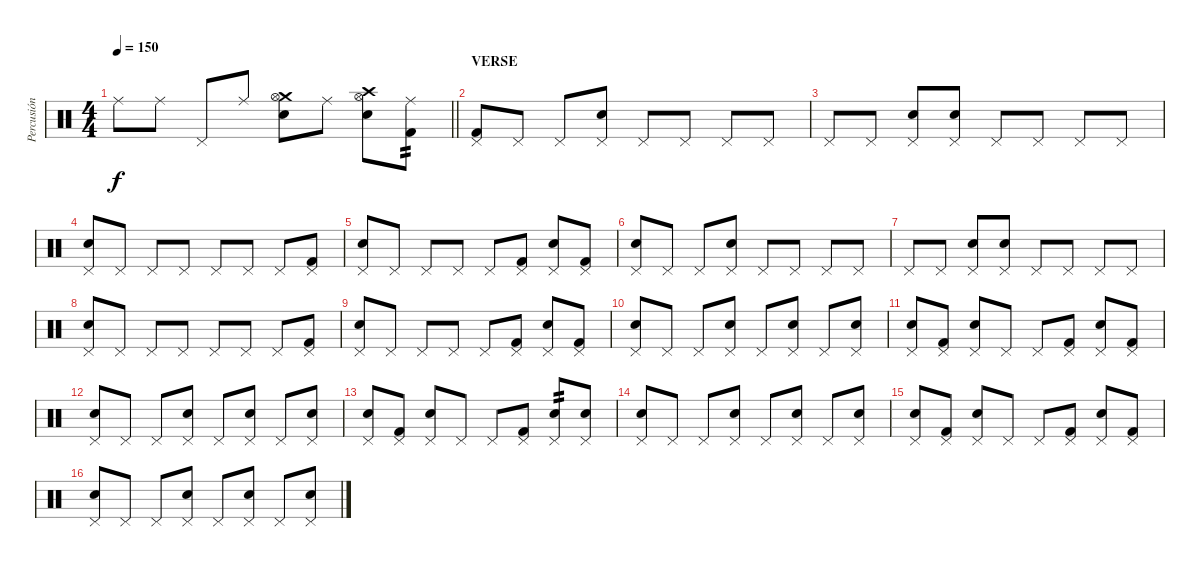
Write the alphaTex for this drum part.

\track ("Percusión" "Percusión") {instrument percussion}
\staff {score}
\articulation defaults
\ts (4 4)
\tempo 150
\clef neutral
\barLineRight lightlight
\ks c "Ride (middle)".8{dy f} "Ride (middle)".8 "Pedal Hi-Hat (hit)".8 "Ride (middle)".8
("Snare (hit) 2" "Crash medium (hit)" "Hi-Hat (open)").8 "Ride (middle)".8 ("Snare (hit) 2" "Crash high (hit)" "Hi-Hat (open)").8 ("Kick (hit) 2" "Ride (middle)").8{tp 2} |
\section ("" "VERSE")
("Kick (hit) 2" "Pedal Hi-Hat (hit)").8 "Pedal Hi-Hat (hit)".8 "Pedal Hi-Hat (hit)".8 ("Electric Snare (hit)" "Pedal Hi-Hat (hit)").8 "Pedal Hi-Hat (hit)".8 "Pedal Hi-Hat (hit)".8 "Pedal Hi-Hat (hit)".8 "Pedal Hi-Hat (hit)".8 |
"Pedal Hi-Hat (hit)".8 "Pedal Hi-Hat (hit)".8 ("Electric Snare (hit)" "Pedal Hi-Hat (hit)").8 ("Electric Snare (hit)" "Pedal Hi-Hat (hit)").8 "Pedal Hi-Hat (hit)".8 "Pedal Hi-Hat (hit)".8 "Pedal Hi-Hat (hit)".8 "Pedal Hi-Hat (hit)".8 |
("Electric Snare (hit)" "Pedal Hi-Hat (hit)").8 "Pedal Hi-Hat (hit)".8 "Pedal Hi-Hat (hit)".8 "Pedal Hi-Hat (hit)".8 "Pedal Hi-Hat (hit)".8 "Pedal Hi-Hat (hit)".8 "Pedal Hi-Hat (hit)".8 ("Kick (hit) 2" "Pedal Hi-Hat (hit)").8 |
("Electric Snare (hit)" "Pedal Hi-Hat (hit)").8 "Pedal Hi-Hat (hit)".8 "Pedal Hi-Hat (hit)".8 "Pedal Hi-Hat (hit)".8 "Pedal Hi-Hat (hit)".8 ("Kick (hit) 2" "Pedal Hi-Hat (hit)").8 ("Electric Snare (hit)" "Pedal Hi-Hat (hit)").8 ("Kick (hit) 2" "Pedal Hi-Hat (hit)").8 |
("Electric Snare (hit)" "Pedal Hi-Hat (hit)").8 "Pedal Hi-Hat (hit)".8 "Pedal Hi-Hat (hit)".8 ("Electric Snare (hit)" "Pedal Hi-Hat (hit)").8 "Pedal Hi-Hat (hit)".8 "Pedal Hi-Hat (hit)".8 "Pedal Hi-Hat (hit)".8 "Pedal Hi-Hat (hit)".8 |
"Pedal Hi-Hat (hit)".8 "Pedal Hi-Hat (hit)".8 ("Electric Snare (hit)" "Pedal Hi-Hat (hit)").8 ("Electric Snare (hit)" "Pedal Hi-Hat (hit)").8 "Pedal Hi-Hat (hit)".8 "Pedal Hi-Hat (hit)".8 "Pedal Hi-Hat (hit)".8 "Pedal Hi-Hat (hit)".8 |
("Electric Snare (hit)" "Pedal Hi-Hat (hit)").8 "Pedal Hi-Hat (hit)".8 "Pedal Hi-Hat (hit)".8 "Pedal Hi-Hat (hit)".8 "Pedal Hi-Hat (hit)".8 "Pedal Hi-Hat (hit)".8 "Pedal Hi-Hat (hit)".8 ("Kick (hit) 2" "Pedal Hi-Hat (hit)").8 |
("Electric Snare (hit)" "Pedal Hi-Hat (hit)").8 "Pedal Hi-Hat (hit)".8 "Pedal Hi-Hat (hit)".8 "Pedal Hi-Hat (hit)".8 "Pedal Hi-Hat (hit)".8 ("Kick (hit) 2" "Pedal Hi-Hat (hit)").8 ("Electric Snare (hit)" "Pedal Hi-Hat (hit)").8 ("Kick (hit) 2" "Pedal Hi-Hat (hit)").8 |
("Electric Snare (hit)" "Pedal Hi-Hat (hit)").8 "Pedal Hi-Hat (hit)".8 "Pedal Hi-Hat (hit)".8 ("Electric Snare (hit)" "Pedal Hi-Hat (hit)").8 "Pedal Hi-Hat (hit)".8 ("Electric Snare (hit)" "Pedal Hi-Hat (hit)").8 "Pedal Hi-Hat (hit)".8 ("Electric Snare (hit)" "Pedal Hi-Hat (hit)").8 |
("Electric Snare (hit)" "Pedal Hi-Hat (hit)").8 ("Kick (hit) 2" "Pedal Hi-Hat (hit)").8 ("Electric Snare (hit)" "Pedal Hi-Hat (hit)").8 "Pedal Hi-Hat (hit)".8 "Pedal Hi-Hat (hit)".8 ("Kick (hit) 2" "Pedal Hi-Hat (hit)").8 ("Electric Snare (hit)" "Pedal Hi-Hat (hit)").8 ("Kick (hit) 2" "Pedal Hi-Hat (hit)").8 |
("Electric Snare (hit)" "Pedal Hi-Hat (hit)").8 "Pedal Hi-Hat (hit)".8 "Pedal Hi-Hat (hit)".8 ("Electric Snare (hit)" "Pedal Hi-Hat (hit)").8 "Pedal Hi-Hat (hit)".8 ("Electric Snare (hit)" "Pedal Hi-Hat (hit)").8 "Pedal Hi-Hat (hit)".8 ("Electric Snare (hit)" "Pedal Hi-Hat (hit)").8 |
("Electric Snare (hit)" "Pedal Hi-Hat (hit)").8 ("Kick (hit) 2" "Pedal Hi-Hat (hit)").8 ("Electric Snare (hit)" "Pedal Hi-Hat (hit)").8 "Pedal Hi-Hat (hit)".8 "Pedal Hi-Hat (hit)".8 ("Kick (hit) 2" "Pedal Hi-Hat (hit)").8 ("Electric Snare (hit)" "Pedal Hi-Hat (hit)").8{tp 2} ("Electric Snare (hit)" "Pedal Hi-Hat (hit)").8 |
("Electric Snare (hit)" "Pedal Hi-Hat (hit)").8 "Pedal Hi-Hat (hit)".8 "Pedal Hi-Hat (hit)".8 ("Electric Snare (hit)" "Pedal Hi-Hat (hit)").8 "Pedal Hi-Hat (hit)".8 ("Electric Snare (hit)" "Pedal Hi-Hat (hit)").8 "Pedal Hi-Hat (hit)".8 ("Electric Snare (hit)" "Pedal Hi-Hat (hit)").8 |
("Electric Snare (hit)" "Pedal Hi-Hat (hit)").8 ("Kick (hit) 2" "Pedal Hi-Hat (hit)").8 ("Electric Snare (hit)" "Pedal Hi-Hat (hit)").8 "Pedal Hi-Hat (hit)".8 "Pedal Hi-Hat (hit)".8 ("Kick (hit) 2" "Pedal Hi-Hat (hit)").8 ("Electric Snare (hit)" "Pedal Hi-Hat (hit)").8 ("Kick (hit) 2" "Pedal Hi-Hat (hit)").8 |
("Electric Snare (hit)" "Pedal Hi-Hat (hit)").8 "Pedal Hi-Hat (hit)".8 "Pedal Hi-Hat (hit)".8 ("Electric Snare (hit)" "Pedal Hi-Hat (hit)").8 "Pedal Hi-Hat (hit)".8 ("Electric Snare (hit)" "Pedal Hi-Hat (hit)").8 "Pedal Hi-Hat (hit)".8 ("Electric Snare (hit)" "Pedal Hi-Hat (hit)").8
